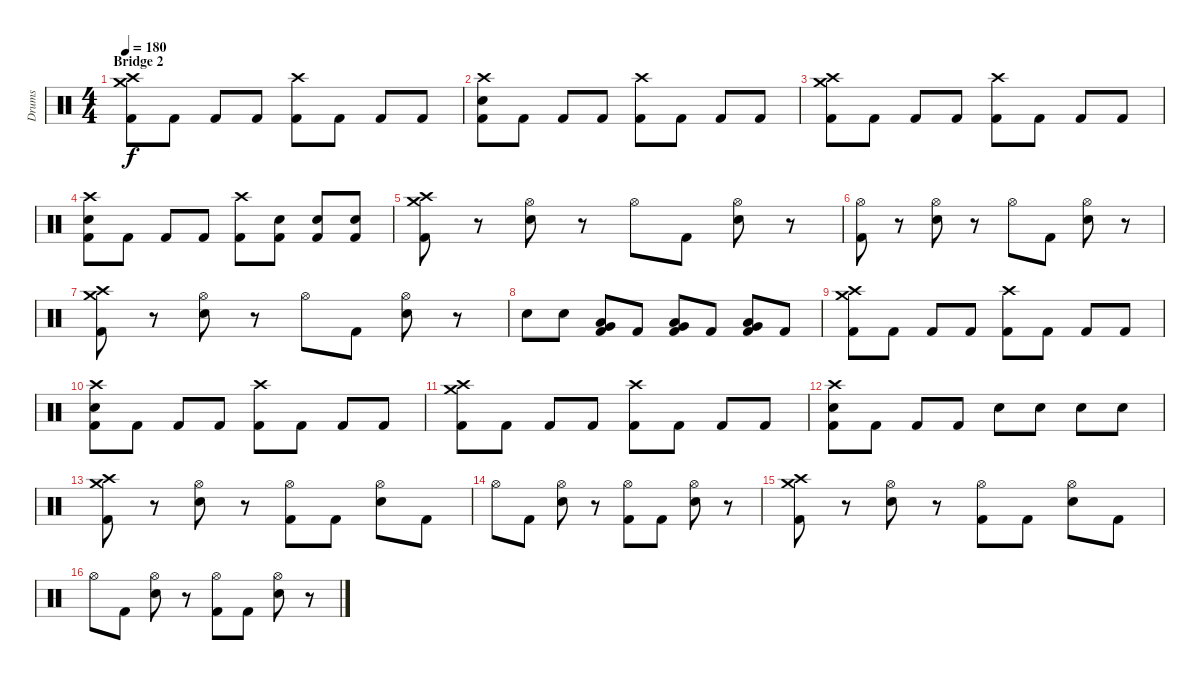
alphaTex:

\track ("Drums" "Drums") {instrument percussion}
\staff {score}
\articulation defaults
\ts (4 4)
\section ("" "Bridge 2")
\tempo 180
\clef neutral
\ks c
("Crash high (hit)" "Crash medium (hit)" "Kick (hit) 2").8{dy f} "Kick (hit) 2".8 "Kick (hit) 2".8 "Kick (hit) 2".8 ("Crash high (hit)" "Kick (hit) 2").8 "Kick (hit) 2".8 "Kick (hit) 2".8 "Kick (hit) 2".8 |
("Crash high (hit)" "Electric Snare (hit)" "Kick (hit) 2").8 "Kick (hit) 2".8 "Kick (hit) 2".8 "Kick (hit) 2".8 ("Crash high (hit)" "Kick (hit) 2").8 "Kick (hit) 2".8 "Kick (hit) 2".8 "Kick (hit) 2".8 |
("Crash high (hit)" "Crash medium (hit)" "Kick (hit) 2").8 "Kick (hit) 2".8 "Kick (hit) 2".8 "Kick (hit) 2".8 ("Crash high (hit)" "Kick (hit) 2").8 "Kick (hit) 2".8 "Kick (hit) 2".8 "Kick (hit) 2".8 |
("Crash high (hit)" "Electric Snare (hit)" "Kick (hit) 2").8 "Kick (hit) 2".8 "Kick (hit) 2".8 "Kick (hit) 2".8 ("Crash high (hit)" "Kick (hit) 2").8 ("Electric Snare (hit)" "Kick (hit) 2").8 ("Electric Snare (hit)" "Kick (hit) 2").8 ("Electric Snare (hit)" "Kick (hit) 2").8 |
("Crash medium (hit)" "Crash high (hit)" "Kick (hit) 2").8 r.8 ("Hi-Hat (open)" "Electric Snare (hit)").8 r.8 "Hi-Hat (open)".8 "Kick (hit) 2".8 ("Hi-Hat (open)" "Electric Snare (hit)").8 r.8 |
("Hi-Hat (open)" "Kick (hit) 2").8 r.8 ("Hi-Hat (open)" "Electric Snare (hit)").8 r.8 "Hi-Hat (open)".8 "Kick (hit) 2".8 ("Hi-Hat (open)" "Electric Snare (hit)").8 r.8 |
("Crash medium (hit)" "Crash high (hit)" "Kick (hit) 2").8 r.8 ("Hi-Hat (open)" "Electric Snare (hit)").8 r.8 "Hi-Hat (open)".8 "Kick (hit) 2".8 ("Hi-Hat (open)" "Electric Snare (hit)").8 r.8 |
"Electric Snare (hit)".8 "Electric Snare (hit)".8 ("Very Low Tom (hit)" "Low Tom (hit)" "Kick (hit) 2").8 "Kick (hit) 2".8 ("Very Low Tom (hit)" "Low Tom (hit)" "Kick (hit) 2").8 "Kick (hit) 2".8 ("Very Low Tom (hit)" "Low Tom (hit)" "Kick (hit) 2").8 "Kick (hit) 2".8 |
("Crash high (hit)" "Crash medium (hit)" "Kick (hit) 2").8 "Kick (hit) 2".8 "Kick (hit) 2".8 "Kick (hit) 2".8 ("Crash high (hit)" "Kick (hit) 2").8 "Kick (hit) 2".8 "Kick (hit) 2".8 "Kick (hit) 2".8 |
("Crash high (hit)" "Electric Snare (hit)" "Kick (hit) 2").8 "Kick (hit) 2".8 "Kick (hit) 2".8 "Kick (hit) 2".8 ("Crash high (hit)" "Kick (hit) 2").8 "Kick (hit) 2".8 "Kick (hit) 2".8 "Kick (hit) 2".8 |
("Crash high (hit)" "Crash medium (hit)" "Kick (hit) 2").8 "Kick (hit) 2".8 "Kick (hit) 2".8 "Kick (hit) 2".8 ("Crash high (hit)" "Kick (hit) 2").8 "Kick (hit) 2".8 "Kick (hit) 2".8 "Kick (hit) 2".8 |
("Crash high (hit)" "Electric Snare (hit)" "Kick (hit) 2").8 "Kick (hit) 2".8 "Kick (hit) 2".8 "Kick (hit) 2".8 "Electric Snare (hit)".8 "Electric Snare (hit)".8 "Electric Snare (hit)".8 "Electric Snare (hit)".8 |
("Crash medium (hit)" "Crash high (hit)" "Kick (hit) 2").8 r.8 ("Hi-Hat (open)" "Electric Snare (hit)").8 r.8 ("Hi-Hat (open)" "Kick (hit) 2").8 "Kick (hit) 2".8 ("Hi-Hat (open)" "Electric Snare (hit)").8 "Kick (hit) 2".8 |
"Hi-Hat (open)".8 "Kick (hit) 2".8 ("Hi-Hat (open)" "Electric Snare (hit)").8 r.8 ("Hi-Hat (open)" "Kick (hit) 2").8 "Kick (hit) 2".8 ("Hi-Hat (open)" "Electric Snare (hit)").8 r.8 |
("Crash medium (hit)" "Crash high (hit)" "Kick (hit) 2").8 r.8 ("Hi-Hat (open)" "Electric Snare (hit)").8 r.8 ("Hi-Hat (open)" "Kick (hit) 2").8 "Kick (hit) 2".8 ("Hi-Hat (open)" "Electric Snare (hit)").8 "Kick (hit) 2".8 |
"Hi-Hat (open)".8 "Kick (hit) 2".8 ("Hi-Hat (open)" "Electric Snare (hit)").8 r.8 ("Hi-Hat (open)" "Kick (hit) 2").8 "Kick (hit) 2".8 ("Hi-Hat (open)" "Electric Snare (hit)").8 r.8
